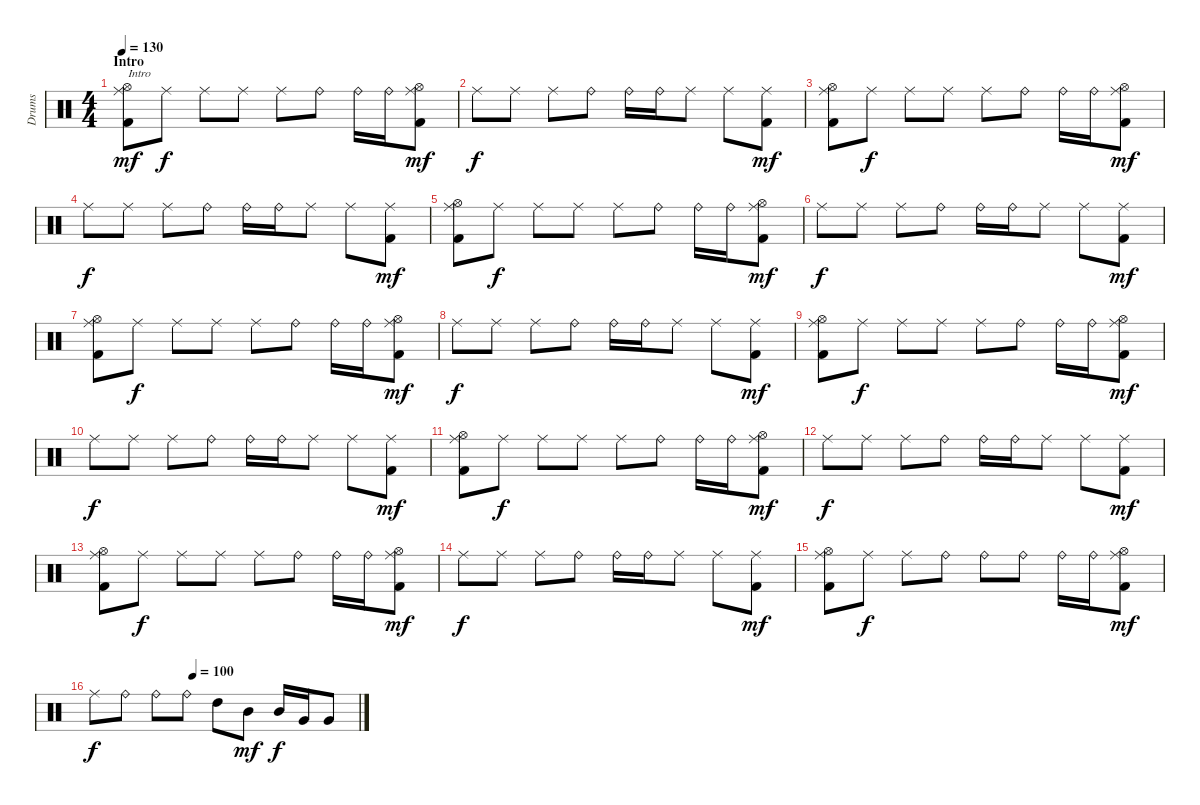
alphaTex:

\track ("Drums" "Drums") {instrument percussion}
\staff {score}
\articulation defaults
\ts (4 4)
\section ("" "Intro")
\tempo 130
\tempo 120
\tempo 130
\clef neutral
\ks c
("Hi-Hat (open)" "Ride (middle)" "Kick (hit) 2").8{txt "Intro" dy mf} "Ride (middle)".8{dy f} "Ride (middle)".8 "Ride (middle)".8 "Ride (middle)".8 "Ride (bell)".8 "Ride (bell)".16 "Ride (bell)".16 ("Hi-Hat (open)" "Ride (middle)" "Kick (hit) 2").8{dy mf} |
"Ride (middle)".8{dy f} "Ride (middle)".8 "Ride (middle)".8 "Ride (bell)".8 "Ride (bell)".16 "Ride (bell)".16 "Ride (middle)".8 "Ride (middle)".8 ("Ride (middle)" "Kick (hit) 2").8{dy mf} |
("Hi-Hat (open)" "Ride (middle)" "Kick (hit) 2").8 "Ride (middle)".8{dy f} "Ride (middle)".8 "Ride (middle)".8 "Ride (middle)".8 "Ride (bell)".8 "Ride (bell)".16 "Ride (bell)".16 ("Hi-Hat (open)" "Ride (middle)" "Kick (hit) 2").8{dy mf} |
"Ride (middle)".8{dy f} "Ride (middle)".8 "Ride (middle)".8 "Ride (bell)".8 "Ride (bell)".16 "Ride (bell)".16 "Ride (middle)".8 "Ride (middle)".8 ("Ride (middle)" "Kick (hit) 2").8{dy mf} |
("Hi-Hat (open)" "Ride (middle)" "Kick (hit) 2").8 "Ride (middle)".8{dy f} "Ride (middle)".8 "Ride (middle)".8 "Ride (middle)".8 "Ride (bell)".8 "Ride (bell)".16 "Ride (bell)".16 ("Hi-Hat (open)" "Ride (middle)" "Kick (hit) 2").8{dy mf} |
"Ride (middle)".8{dy f} "Ride (middle)".8 "Ride (middle)".8 "Ride (bell)".8 "Ride (bell)".16 "Ride (bell)".16 "Ride (middle)".8 "Ride (middle)".8 ("Ride (middle)" "Kick (hit) 2").8{dy mf} |
("Hi-Hat (open)" "Ride (middle)" "Kick (hit) 2").8 "Ride (middle)".8{dy f} "Ride (middle)".8 "Ride (middle)".8 "Ride (middle)".8 "Ride (bell)".8 "Ride (bell)".16 "Ride (bell)".16 ("Hi-Hat (open)" "Ride (middle)" "Kick (hit) 2").8{dy mf} |
"Ride (middle)".8{dy f} "Ride (middle)".8 "Ride (middle)".8 "Ride (bell)".8 "Ride (bell)".16 "Ride (bell)".16 "Ride (middle)".8 "Ride (middle)".8 ("Ride (middle)" "Kick (hit) 2").8{dy mf} |
("Hi-Hat (open)" "Ride (middle)" "Kick (hit) 2").8 "Ride (middle)".8{dy f} "Ride (middle)".8 "Ride (middle)".8 "Ride (middle)".8 "Ride (bell)".8 "Ride (bell)".16 "Ride (bell)".16 ("Hi-Hat (open)" "Ride (middle)" "Kick (hit) 2").8{dy mf} |
"Ride (middle)".8{dy f} "Ride (middle)".8 "Ride (middle)".8 "Ride (bell)".8 "Ride (bell)".16 "Ride (bell)".16 "Ride (middle)".8 "Ride (middle)".8 ("Ride (middle)" "Kick (hit) 2").8{dy mf} |
("Hi-Hat (open)" "Ride (middle)" "Kick (hit) 2").8 "Ride (middle)".8{dy f} "Ride (middle)".8 "Ride (middle)".8 "Ride (middle)".8 "Ride (bell)".8 "Ride (bell)".16 "Ride (bell)".16 ("Hi-Hat (open)" "Ride (middle)" "Kick (hit) 2").8{dy mf} |
"Ride (middle)".8{dy f} "Ride (middle)".8 "Ride (middle)".8 "Ride (bell)".8 "Ride (bell)".16 "Ride (bell)".16 "Ride (middle)".8 "Ride (middle)".8 ("Ride (middle)" "Kick (hit) 2").8{dy mf} |
("Hi-Hat (open)" "Ride (middle)" "Kick (hit) 2").8 "Ride (middle)".8{dy f} "Ride (middle)".8 "Ride (middle)".8 "Ride (middle)".8 "Ride (bell)".8 "Ride (bell)".16 "Ride (bell)".16 ("Hi-Hat (open)" "Ride (middle)" "Kick (hit) 2").8{dy mf} |
"Ride (middle)".8{dy f} "Ride (middle)".8 "Ride (middle)".8 "Ride (bell)".8 "Ride (bell)".16 "Ride (bell)".16 "Ride (middle)".8 "Ride (middle)".8 ("Ride (middle)" "Kick (hit) 2").8{dy mf} |
("Hi-Hat (open)" "Ride (middle)" "Kick (hit) 2").8 "Ride (middle)".8{dy f} "Ride (middle)".8 "Ride (bell)".8 "Ride (bell)".8 "Ride (bell)".8 "Ride (bell)".16 "Ride (bell)".16 ("Hi-Hat (open)" "Ride (middle)" "Kick (hit) 2").8{dy mf} |
\tempo (100 0.375)
"Ride (middle)".8{dy f} "Ride (bell)".8 "Ride (bell)".8 "Ride (bell)".8 "High Tom (hit)".8 "Mid Tom (hit)".8{dy mf} "Mid Tom (hit)".16{dy f} "Very Low Tom (hit)".16 "Very Low Tom (hit)".8
